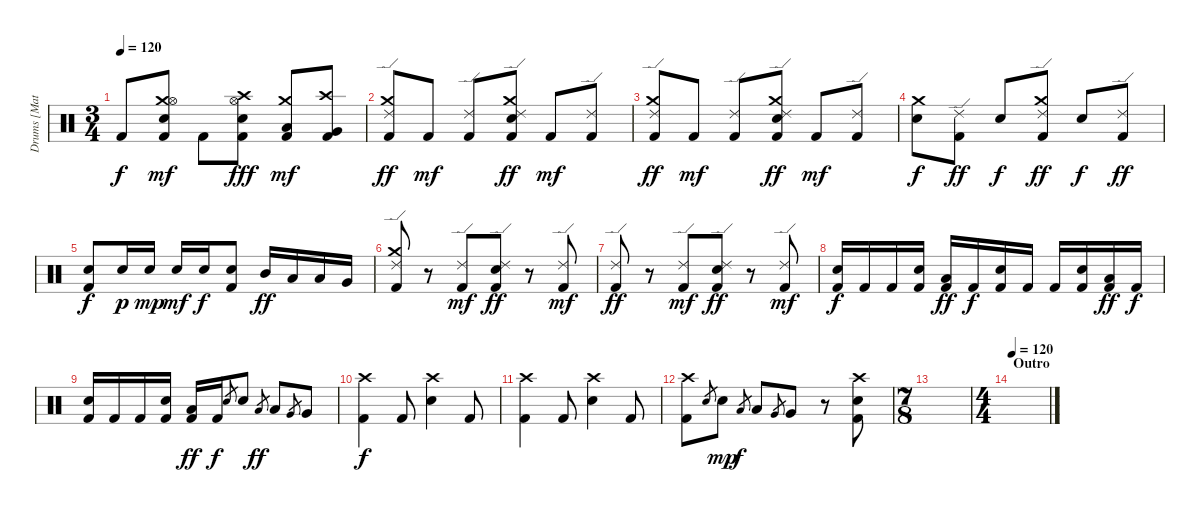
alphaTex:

\track ("Drums [Matt]" "Drums [Mat") {instrument percussion}
\staff {score}
\articulation defaults
\ts (3 4)
\tempo 120
\clef neutral
\ks c "Kick (hit) 2".8{dy f}
("Crash medium (hit)" "Hi-Hat (open)" "Snare (hit) 2" "Kick (hit) 2").8{dy mf} "Kick (hit) 2".8 ("Crash high (hit)" "Hi-Hat (open)" "Snare (hit) 2" "Kick (hit) 2").8{dy fff} ("Crash medium (hit)" "Low Tom (hit)" "Kick (hit) 2").8{dy mf} ("Crash high (hit)" "Very Low Tom (hit)" "Kick (hit) 2").8 |
("Crash medium (hit)" "Ride (edge) 2" "Kick (hit) 2").8{dy ff} "Kick (hit) 2".8{dy mf} ("Ride (edge) 2" "Kick (hit) 2").8 ("Crash medium (hit)" "Ride (edge) 2" "Snare (hit) 2" "Kick (hit) 2").8{dy ff} "Kick (hit) 2".8{dy mf} ("Ride (edge) 2" "Kick (hit) 2").8 |
("Crash medium (hit)" "Ride (edge) 2" "Kick (hit) 2").8{dy ff} "Kick (hit) 2".8{dy mf} ("Ride (edge) 2" "Kick (hit) 2").8 ("Crash medium (hit)" "Ride (edge) 2" "Snare (hit) 2" "Kick (hit) 2").8{dy ff} "Kick (hit) 2".8{dy mf} ("Ride (edge) 2" "Kick (hit) 2").8 |
("Crash medium (hit)" "Snare (hit) 2").8{dy f} ("Ride (edge) 2" "Kick (hit) 2").8{dy ff} "Snare (hit) 2".8{dy f} ("Crash medium (hit)" "Ride (edge) 2" "Kick (hit) 2").8{dy ff} "Snare (hit) 2".8{dy f} ("Ride (edge) 2" "Kick (hit) 2").8{dy ff} |
("Snare (hit) 2" "Kick (hit) 2").8{dy f} "Snare (hit) 2".16{dy p} "Snare (hit) 2".16{dy mp} "Snare (hit) 2".16{dy mf} "Snare (hit) 2".16{dy f} ("Snare (hit) 2" "Kick (hit) 2").8 "Mid Tom (hit)".16{dy ff} "Low Tom (hit)".16 "Low Tom (hit)".16 "Very Low Tom (hit)".16 |
("Crash medium (hit)" "Ride (edge) 2" "Kick (hit) 2").8 r.8 ("Ride (edge) 2" "Kick (hit) 2").8{dy mf} ("Ride (edge) 2" "Snare (hit) 2" "Kick (hit) 2").8{dy ff} r.8 ("Ride (edge) 2" "Kick (hit) 2").8{dy mf} |
("Ride (edge) 2" "Kick (hit) 2").8{dy ff} r.8 ("Ride (edge) 2" "Kick (hit) 2").8{dy mf} ("Ride (edge) 2" "Snare (hit) 2" "Kick (hit) 2").8{dy ff} r.8 ("Ride (edge) 2" "Kick (hit) 2").8{dy mf} |
("Snare (hit) 2" "Kick (hit) 2").16{dy f} "Kick (hit) 2".16 "Kick (hit) 2".16 ("Snare (hit) 2" "Kick (hit) 2").16 ("Low Tom (hit)" "Kick (hit) 2").16{dy ff} "Kick (hit) 2".16{dy f} ("Snare (hit) 2" "Kick (hit) 2").16 "Kick (hit) 2".16 "Kick (hit) 2".16 ("Snare (hit) 2" "Kick (hit) 2").16 ("Low Tom (hit)" "Kick (hit) 2").16{dy ff} "Kick (hit) 2".16{dy f} |
("Snare (hit) 2" "Kick (hit) 2").16 "Kick (hit) 2".16 "Kick (hit) 2".16 ("Snare (hit) 2" "Kick (hit) 2").16 ("Low Tom (hit)" "Kick (hit) 2").16{dy ff} "Kick (hit) 2".16{dy f} "Snare (hit) 2".8{gr} "Snare (hit) 2".8 "Low Tom (hit)".8{gr dy ff} "Low Tom (hit)".8 "Very Low Tom (hit)".8{gr} "Very Low Tom (hit)".8 |
("Crash high (hit)" "Kick (hit) 2").4{dy f} "Kick (hit) 2".8 ("Crash high (hit)" "Snare (hit) 2").4 "Kick (hit) 2".8 |
("Crash high (hit)" "Kick (hit) 2").4 "Kick (hit) 2".8 ("Crash high (hit)" "Snare (hit) 2").4 "Kick (hit) 2".8 |
("Crash high (hit)" "Kick (hit) 2").8 "Snare (hit) 2".8{gr} "Snare (hit) 2".8{dy mp} "Low Tom (hit)".8{gr dy f} "Low Tom (hit)".8 "Very Low Tom (hit)".8{gr} "Very Low Tom (hit)".8 r.8 ("Crash high (hit)" "Snare (hit) 2" "Kick (hit) 2").8 |
\ts (7 8)
|
\ts (4 4)
\section ("" "Outro")
\tempo 120
